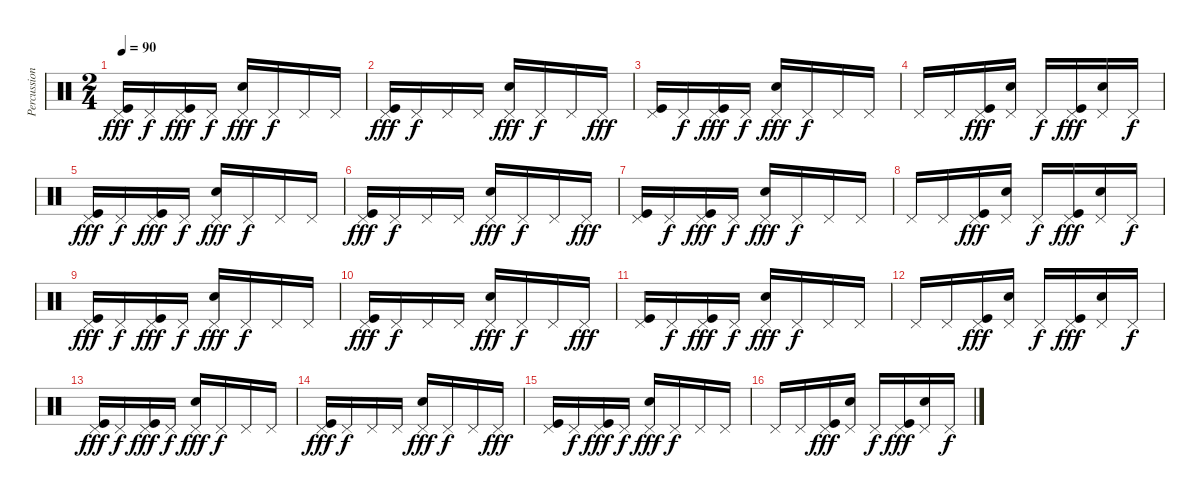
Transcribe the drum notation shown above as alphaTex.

\track ("Percussion" "Percussion") {instrument percussion}
\staff {score}
\articulation defaults
\ts (2 4)
\tempo 90
\clef neutral
\ks c
("Kick (hit)" "Pedal Hi-Hat (hit)").16{dy fff} "Pedal Hi-Hat (hit)".16{dy f} ("Kick (hit)" "Pedal Hi-Hat (hit)").16{dy fff} "Pedal Hi-Hat (hit)".16{dy f} ("Electric Snare (hit)" "Pedal Hi-Hat (hit)").16{dy fff} "Pedal Hi-Hat (hit)".16{dy f} "Pedal Hi-Hat (hit)".16 "Pedal Hi-Hat (hit)".16 |
("Kick (hit)" "Pedal Hi-Hat (hit)").16{dy fff} "Pedal Hi-Hat (hit)".16{dy f} "Pedal Hi-Hat (hit)".16 "Pedal Hi-Hat (hit)".16 ("Electric Snare (hit)" "Pedal Hi-Hat (hit)").16{dy fff} "Pedal Hi-Hat (hit)".16{dy f} "Pedal Hi-Hat (hit)".16 "Pedal Hi-Hat (hit)".16{dy fff} |
("Kick (hit)" "Pedal Hi-Hat (hit)").16 "Pedal Hi-Hat (hit)".16{dy f} ("Kick (hit)" "Pedal Hi-Hat (hit)").16{dy fff} "Pedal Hi-Hat (hit)".16{dy f} ("Electric Snare (hit)" "Pedal Hi-Hat (hit)").16{dy fff} "Pedal Hi-Hat (hit)".16{dy f} "Pedal Hi-Hat (hit)".16 "Pedal Hi-Hat (hit)".16 |
"Pedal Hi-Hat (hit)".16 "Pedal Hi-Hat (hit)".16 ("Kick (hit)" "Pedal Hi-Hat (hit)").16{dy fff} ("Electric Snare (hit)" "Pedal Hi-Hat (hit)").16 "Pedal Hi-Hat (hit)".16{dy f} ("Kick (hit)" "Pedal Hi-Hat (hit)").16{dy fff} ("Electric Snare (hit)" "Pedal Hi-Hat (hit)").16 "Pedal Hi-Hat (hit)".16{dy f} |
("Kick (hit)" "Pedal Hi-Hat (hit)").16{dy fff} "Pedal Hi-Hat (hit)".16{dy f} ("Kick (hit)" "Pedal Hi-Hat (hit)").16{dy fff} "Pedal Hi-Hat (hit)".16{dy f} ("Electric Snare (hit)" "Pedal Hi-Hat (hit)").16{dy fff} "Pedal Hi-Hat (hit)".16{dy f} "Pedal Hi-Hat (hit)".16 "Pedal Hi-Hat (hit)".16 |
("Kick (hit)" "Pedal Hi-Hat (hit)").16{dy fff} "Pedal Hi-Hat (hit)".16{dy f} "Pedal Hi-Hat (hit)".16 "Pedal Hi-Hat (hit)".16 ("Electric Snare (hit)" "Pedal Hi-Hat (hit)").16{dy fff} "Pedal Hi-Hat (hit)".16{dy f} "Pedal Hi-Hat (hit)".16 "Pedal Hi-Hat (hit)".16{dy fff} |
("Kick (hit)" "Pedal Hi-Hat (hit)").16 "Pedal Hi-Hat (hit)".16{dy f} ("Kick (hit)" "Pedal Hi-Hat (hit)").16{dy fff} "Pedal Hi-Hat (hit)".16{dy f} ("Electric Snare (hit)" "Pedal Hi-Hat (hit)").16{dy fff} "Pedal Hi-Hat (hit)".16{dy f} "Pedal Hi-Hat (hit)".16 "Pedal Hi-Hat (hit)".16 |
"Pedal Hi-Hat (hit)".16 "Pedal Hi-Hat (hit)".16 ("Kick (hit)" "Pedal Hi-Hat (hit)").16{dy fff} ("Electric Snare (hit)" "Pedal Hi-Hat (hit)").16 "Pedal Hi-Hat (hit)".16{dy f} ("Kick (hit)" "Pedal Hi-Hat (hit)").16{dy fff} ("Electric Snare (hit)" "Pedal Hi-Hat (hit)").16 "Pedal Hi-Hat (hit)".16{dy f} |
("Kick (hit)" "Pedal Hi-Hat (hit)").16{dy fff} "Pedal Hi-Hat (hit)".16{dy f} ("Kick (hit)" "Pedal Hi-Hat (hit)").16{dy fff} "Pedal Hi-Hat (hit)".16{dy f} ("Electric Snare (hit)" "Pedal Hi-Hat (hit)").16{dy fff} "Pedal Hi-Hat (hit)".16{dy f} "Pedal Hi-Hat (hit)".16 "Pedal Hi-Hat (hit)".16 |
("Kick (hit)" "Pedal Hi-Hat (hit)").16{dy fff} "Pedal Hi-Hat (hit)".16{dy f} "Pedal Hi-Hat (hit)".16 "Pedal Hi-Hat (hit)".16 ("Electric Snare (hit)" "Pedal Hi-Hat (hit)").16{dy fff} "Pedal Hi-Hat (hit)".16{dy f} "Pedal Hi-Hat (hit)".16 "Pedal Hi-Hat (hit)".16{dy fff} |
("Kick (hit)" "Pedal Hi-Hat (hit)").16 "Pedal Hi-Hat (hit)".16{dy f} ("Kick (hit)" "Pedal Hi-Hat (hit)").16{dy fff} "Pedal Hi-Hat (hit)".16{dy f} ("Electric Snare (hit)" "Pedal Hi-Hat (hit)").16{dy fff} "Pedal Hi-Hat (hit)".16{dy f} "Pedal Hi-Hat (hit)".16 "Pedal Hi-Hat (hit)".16 |
"Pedal Hi-Hat (hit)".16 "Pedal Hi-Hat (hit)".16 ("Kick (hit)" "Pedal Hi-Hat (hit)").16{dy fff} ("Electric Snare (hit)" "Pedal Hi-Hat (hit)").16 "Pedal Hi-Hat (hit)".16{dy f} ("Kick (hit)" "Pedal Hi-Hat (hit)").16{dy fff} ("Electric Snare (hit)" "Pedal Hi-Hat (hit)").16 "Pedal Hi-Hat (hit)".16{dy f} |
("Kick (hit)" "Pedal Hi-Hat (hit)").16{dy fff} "Pedal Hi-Hat (hit)".16{dy f} ("Kick (hit)" "Pedal Hi-Hat (hit)").16{dy fff} "Pedal Hi-Hat (hit)".16{dy f} ("Electric Snare (hit)" "Pedal Hi-Hat (hit)").16{dy fff} "Pedal Hi-Hat (hit)".16{dy f} "Pedal Hi-Hat (hit)".16 "Pedal Hi-Hat (hit)".16 |
("Kick (hit)" "Pedal Hi-Hat (hit)").16{dy fff} "Pedal Hi-Hat (hit)".16{dy f} "Pedal Hi-Hat (hit)".16 "Pedal Hi-Hat (hit)".16 ("Electric Snare (hit)" "Pedal Hi-Hat (hit)").16{dy fff} "Pedal Hi-Hat (hit)".16{dy f} "Pedal Hi-Hat (hit)".16 "Pedal Hi-Hat (hit)".16{dy fff} |
("Kick (hit)" "Pedal Hi-Hat (hit)").16 "Pedal Hi-Hat (hit)".16{dy f} ("Kick (hit)" "Pedal Hi-Hat (hit)").16{dy fff} "Pedal Hi-Hat (hit)".16{dy f} ("Electric Snare (hit)" "Pedal Hi-Hat (hit)").16{dy fff} "Pedal Hi-Hat (hit)".16{dy f} "Pedal Hi-Hat (hit)".16 "Pedal Hi-Hat (hit)".16 |
"Pedal Hi-Hat (hit)".16 "Pedal Hi-Hat (hit)".16 ("Kick (hit)" "Pedal Hi-Hat (hit)").16{dy fff} ("Electric Snare (hit)" "Pedal Hi-Hat (hit)").16 "Pedal Hi-Hat (hit)".16{dy f} ("Kick (hit)" "Pedal Hi-Hat (hit)").16{dy fff} ("Electric Snare (hit)" "Pedal Hi-Hat (hit)").16 "Pedal Hi-Hat (hit)".16{dy f}
